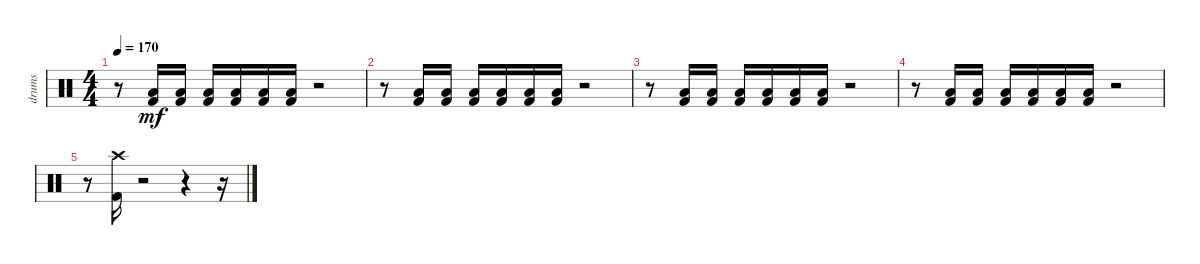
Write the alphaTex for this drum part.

\track ("drums               " "drums     ") {instrument percussion}
\staff {score}
\articulation defaults
\ts (4 4)
\tempo 170
\clef neutral
\ks c
r.8{dy mf} ("Kick (hit) 2" "Low Floor Tom (hit)").16 ("Kick (hit) 2" "Low Floor Tom (hit)").16 ("Kick (hit) 2" "Low Floor Tom (hit)").16 ("Kick (hit) 2" "Low Floor Tom (hit)").16 ("Kick (hit) 2" "Low Floor Tom (hit)").16 ("Kick (hit) 2" "Low Floor Tom (hit)").16 r.2 |
r.8 ("Kick (hit) 2" "Low Floor Tom (hit)").16 ("Kick (hit) 2" "Low Floor Tom (hit)").16 ("Kick (hit) 2" "Low Floor Tom (hit)").16 ("Kick (hit) 2" "Low Floor Tom (hit)").16 ("Kick (hit) 2" "Low Floor Tom (hit)").16 ("Kick (hit) 2" "Low Floor Tom (hit)").16 r.2 |
r.8 ("Kick (hit) 2" "Low Floor Tom (hit)").16 ("Kick (hit) 2" "Low Floor Tom (hit)").16 ("Kick (hit) 2" "Low Floor Tom (hit)").16 ("Kick (hit) 2" "Low Floor Tom (hit)").16 ("Kick (hit) 2" "Low Floor Tom (hit)").16 ("Kick (hit) 2" "Low Floor Tom (hit)").16 r.2 |
r.8 ("Kick (hit) 2" "Low Floor Tom (hit)").16 ("Kick (hit) 2" "Low Floor Tom (hit)").16 ("Kick (hit) 2" "Low Floor Tom (hit)").16 ("Kick (hit) 2" "Low Floor Tom (hit)").16 ("Kick (hit) 2" "Low Floor Tom (hit)").16 ("Kick (hit) 2" "Low Floor Tom (hit)").16 r.2 |
r.8 ("Crash high (hit)" "Kick (hit) 2").16 r.2 r.4 r.16
